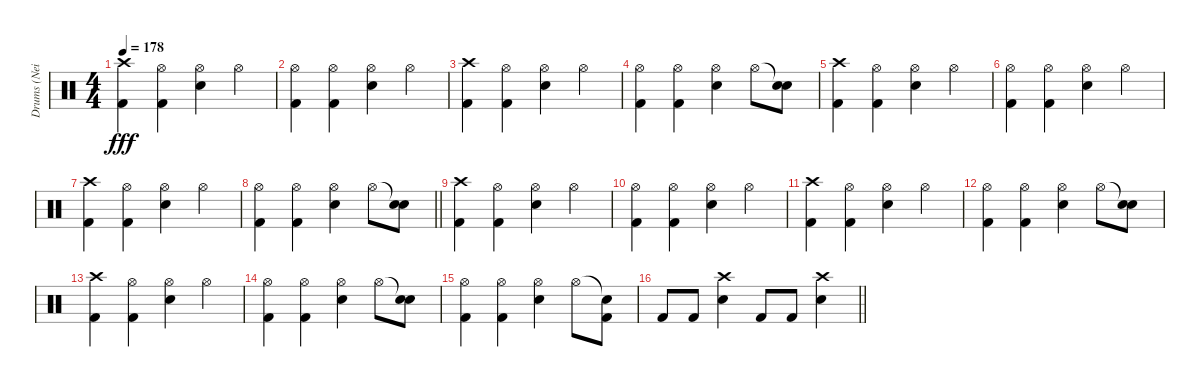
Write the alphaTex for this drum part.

\track ("Drums (Neil Sanderson)" "Drums (Nei") {instrument percussion}
\staff {score}
\articulation defaults
\ts (4 4)
\tempo 178
\clef neutral
\ks c
("Crash high (hit)" "Kick (hit) 2").4{dy fff} ("Hi-Hat (open)" "Kick (hit) 2").4 ("Hi-Hat (open)" "Snare (hit) 2").4 "Hi-Hat (open)".4 |
("Hi-Hat (open)" "Kick (hit) 2").4 ("Hi-Hat (open)" "Kick (hit) 2").4 ("Hi-Hat (open)" "Snare (hit) 2").4 "Hi-Hat (open)".4 |
("Crash high (hit)" "Kick (hit) 2").4 ("Hi-Hat (open)" "Kick (hit) 2").4 ("Hi-Hat (open)" "Snare (hit) 2").4 "Hi-Hat (open)".4 |
("Hi-Hat (open)" "Kick (hit) 2").4 ("Hi-Hat (open)" "Kick (hit) 2").4 ("Hi-Hat (open)" "Snare (hit) 2").4 "Hi-Hat (open)".8 ("Snare (hit)"{t} "Snare (hit) 2").8 |
("Crash high (hit)" "Kick (hit) 2").4 ("Hi-Hat (open)" "Kick (hit) 2").4 ("Hi-Hat (open)" "Snare (hit) 2").4 "Hi-Hat (open)".4 |
("Hi-Hat (open)" "Kick (hit) 2").4 ("Hi-Hat (open)" "Kick (hit) 2").4 ("Hi-Hat (open)" "Snare (hit) 2").4 "Hi-Hat (open)".4 |
("Crash high (hit)" "Kick (hit) 2").4 ("Hi-Hat (open)" "Kick (hit) 2").4 ("Hi-Hat (open)" "Snare (hit) 2").4 "Hi-Hat (open)".4 |
\barLineRight lightlight
("Hi-Hat (open)" "Kick (hit) 2").4 ("Hi-Hat (open)" "Kick (hit) 2").4 ("Hi-Hat (open)" "Snare (hit) 2").4 "Hi-Hat (open)".8 ("Snare (hit)"{t} "Snare (hit) 2").8 |
("Crash high (hit)" "Kick (hit) 2").4 ("Hi-Hat (open)" "Kick (hit) 2").4 ("Hi-Hat (open)" "Snare (hit) 2").4 "Hi-Hat (open)".4 |
("Hi-Hat (open)" "Kick (hit) 2").4 ("Hi-Hat (open)" "Kick (hit) 2").4 ("Hi-Hat (open)" "Snare (hit) 2").4 "Hi-Hat (open)".4 |
("Crash high (hit)" "Kick (hit) 2").4 ("Hi-Hat (open)" "Kick (hit) 2").4 ("Hi-Hat (open)" "Snare (hit) 2").4 "Hi-Hat (open)".4 |
("Hi-Hat (open)" "Kick (hit) 2").4 ("Hi-Hat (open)" "Kick (hit) 2").4 ("Hi-Hat (open)" "Snare (hit) 2").4 "Hi-Hat (open)".8 ("Snare (hit)"{t} "Snare (hit) 2").8 |
("Crash high (hit)" "Kick (hit) 2").4 ("Hi-Hat (open)" "Kick (hit) 2").4 ("Hi-Hat (open)" "Snare (hit) 2").4 "Hi-Hat (open)".4 |
("Hi-Hat (open)" "Kick (hit) 2").4 ("Hi-Hat (open)" "Kick (hit) 2").4 ("Hi-Hat (open)" "Snare (hit) 2").4 "Hi-Hat (open)".8 ("Snare (hit)"{t} "Snare (hit) 2").8 |
("Hi-Hat (open)" "Kick (hit) 2").4 ("Hi-Hat (open)" "Kick (hit) 2").4 ("Hi-Hat (open)" "Snare (hit) 2").4 "Hi-Hat (open)".8 ("Snare (hit)"{t} "Kick (hit) 2").8 |
\barLineRight lightlight "Kick (hit) 2".8 "Kick (hit) 2".8
("Crash high (hit)" "Snare (hit) 2").4 "Kick (hit) 2".8 "Kick (hit) 2".8 ("Crash high (hit)" "Snare (hit) 2").4
